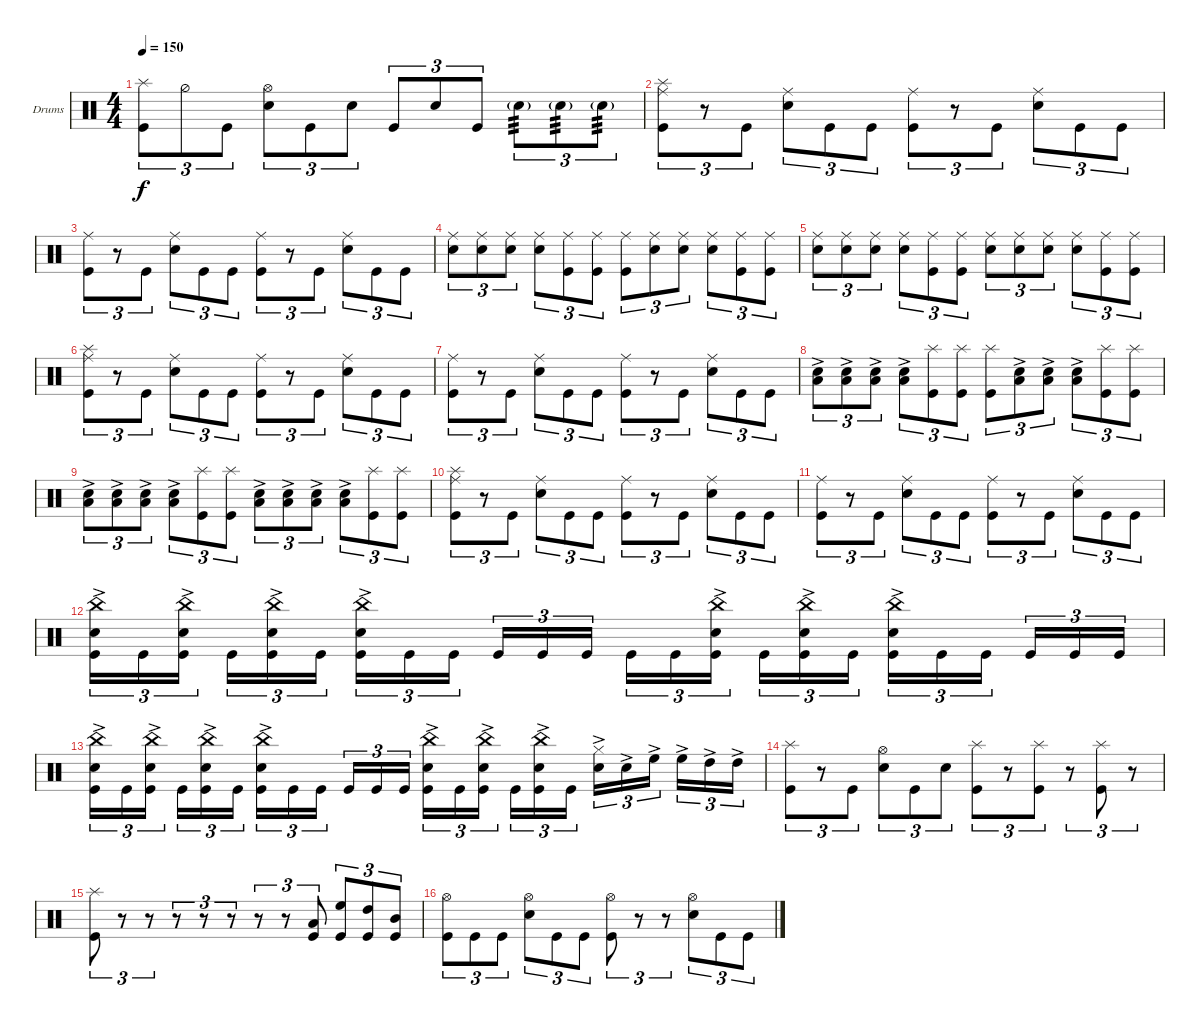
\bracketExtendMode groupsimilarinstruments
\firstSystemTrackNameOrientation horizontal
\otherSystemsTrackNameOrientation horizontal
\track ("Drumkit" "Drums") {instrument percussion}
\staff {score}
\articulation defaults
\ts (4 4)
\tempo 150
\clef neutral
\ks c
("Kick (hit)" "Splash (hit)").8{tu (3 2) dy f} "Hi-Hat (half)".8{tu (3 2)} "Kick (hit)".8{tu (3 2)} ("Hi-Hat (open)" "Snare (hit) 2").8{tu (3 2)} "Kick (hit)".8{tu (3 2)} "Snare (hit) 2".8{tu (3 2)} "Kick (hit)".8{tu (3 2)} "Snare (hit) 2".8{tu (3 2)} "Kick (hit)".8{tu (3 2)} "Snare (hit) 2"{g}.8{tu (3 2) tp 3} "Snare (hit) 2"{g}.8{tu (3 2) tp 3} "Snare (hit) 2"{g}.8{tu (3 2) tp 3} |
("Kick (hit)" "Ride (middle)" "Splash (hit)").8{tu (3 2)} r.8{tu (3 2)} "Kick (hit)".8{tu (3 2)} ("Snare (hit) 2" "Ride (middle)").8{tu (3 2)} "Kick (hit)".8{tu (3 2)} "Kick (hit)".8{tu (3 2)} ("Kick (hit)" "Ride (middle)").8{tu (3 2)} r.8{tu (3 2)} "Kick (hit)".8{tu (3 2)} ("Snare (hit) 2" "Ride (middle)").8{tu (3 2)} "Kick (hit)".8{tu (3 2)} "Kick (hit)".8{tu (3 2)} |
("Kick (hit)" "Ride (middle)").8{tu (3 2)} r.8{tu (3 2)} "Kick (hit)".8{tu (3 2)} ("Snare (hit) 2" "Ride (middle)").8{tu (3 2)} "Kick (hit)".8{tu (3 2)} "Kick (hit)".8{tu (3 2)} ("Kick (hit)" "Ride (middle)").8{tu (3 2)} r.8{tu (3 2)} "Kick (hit)".8{tu (3 2)} ("Snare (hit) 2" "Ride (middle)").8{tu (3 2)} "Kick (hit)".8{tu (3 2)} "Kick (hit)".8{tu (3 2)} |
("Snare (hit) 2" "Ride (middle)").8{tu (3 2)} ("Snare (hit) 2" "Ride (middle)").8{tu (3 2)} ("Snare (hit) 2" "Ride (middle)").8{tu (3 2)} ("Snare (hit) 2" "Ride (middle)").8{tu (3 2)} ("Kick (hit)" "Ride (middle)").8{tu (3 2)} ("Kick (hit)" "Ride (middle)").8{tu (3 2)} ("Kick (hit)" "Ride (middle)").8{tu (3 2)} ("Snare (hit) 2" "Ride (middle)").8{tu (3 2)} ("Snare (hit) 2" "Ride (middle)").8{tu (3 2)} ("Snare (hit) 2" "Ride (middle)").8{tu (3 2)} ("Kick (hit)" "Ride (middle)").8{tu (3 2)} ("Kick (hit)" "Ride (middle)").8{tu (3 2)} |
("Snare (hit) 2" "Ride (middle)").8{tu (3 2)} ("Snare (hit) 2" "Ride (middle)").8{tu (3 2)} ("Snare (hit) 2" "Ride (middle)").8{tu (3 2)} ("Snare (hit) 2" "Ride (middle)").8{tu (3 2)} ("Kick (hit)" "Ride (middle)").8{tu (3 2)} ("Kick (hit)" "Ride (middle)").8{tu (3 2)} ("Snare (hit) 2" "Ride (middle)").8{tu (3 2)} ("Snare (hit) 2" "Ride (middle)").8{tu (3 2)} ("Snare (hit) 2" "Ride (middle)").8{tu (3 2)} ("Snare (hit) 2" "Ride (middle)").8{tu (3 2)} ("Kick (hit)" "Ride (middle)").8{tu (3 2)} ("Kick (hit)" "Ride (middle)").8{tu (3 2)} |
("Kick (hit)" "Ride (middle)" "Splash (hit)").8{tu (3 2)} r.8{tu (3 2)} "Kick (hit)".8{tu (3 2)} ("Snare (hit) 2" "Ride (middle)").8{tu (3 2)} "Kick (hit)".8{tu (3 2)} "Kick (hit)".8{tu (3 2)} ("Kick (hit)" "Ride (middle)").8{tu (3 2)} r.8{tu (3 2)} "Kick (hit)".8{tu (3 2)} ("Snare (hit) 2" "Ride (middle)").8{tu (3 2)} "Kick (hit)".8{tu (3 2)} "Kick (hit)".8{tu (3 2)} |
("Kick (hit)" "Ride (middle)").8{tu (3 2)} r.8{tu (3 2)} "Kick (hit)".8{tu (3 2)} ("Snare (hit) 2" "Ride (middle)").8{tu (3 2)} "Kick (hit)".8{tu (3 2)} "Kick (hit)".8{tu (3 2)} ("Kick (hit)" "Ride (middle)").8{tu (3 2)} r.8{tu (3 2)} "Kick (hit)".8{tu (3 2)} ("Snare (hit) 2" "Ride (middle)").8{tu (3 2)} "Kick (hit)".8{tu (3 2)} "Kick (hit)".8{tu (3 2)} |
("Snare (hit) 2" "Low Tom (hit)"{ac}).8{tu (3 2)} ("Snare (hit) 2" "Low Tom (hit)"{ac}).8{tu (3 2)} ("Snare (hit) 2" "Low Tom (hit)"{ac}).8{tu (3 2)} ("Snare (hit) 2" "Low Tom (hit)"{ac}).8{tu (3 2)} ("Kick (hit)" "Splash (hit)").8{tu (3 2)} ("Kick (hit)" "Splash (hit)").8{tu (3 2)} ("Kick (hit)" "Splash (hit)").8{tu (3 2)} ("Snare (hit) 2" "Low Tom (hit)"{ac}).8{tu (3 2)} ("Snare (hit) 2" "Low Tom (hit)"{ac}).8{tu (3 2)} ("Snare (hit) 2" "Low Tom (hit)"{ac}).8{tu (3 2)} ("Kick (hit)" "Splash (hit)").8{tu (3 2)} ("Kick (hit)" "Splash (hit)").8{tu (3 2)} |
("Snare (hit) 2" "Low Tom (hit)"{ac}).8{tu (3 2)} ("Snare (hit) 2" "Low Tom (hit)"{ac}).8{tu (3 2)} ("Snare (hit) 2" "Low Tom (hit)"{ac}).8{tu (3 2)} ("Snare (hit) 2" "Low Tom (hit)"{ac}).8{tu (3 2)} ("Kick (hit)" "Splash (hit)").8{tu (3 2)} ("Kick (hit)" "Splash (hit)").8{tu (3 2)} ("Snare (hit) 2" "Low Tom (hit)"{ac}).8{tu (3 2)} ("Snare (hit) 2" "Low Tom (hit)"{ac}).8{tu (3 2)} ("Snare (hit) 2" "Low Tom (hit)"{ac}).8{tu (3 2)} ("Snare (hit) 2" "Low Tom (hit)"{ac}).8{tu (3 2)} ("Kick (hit)" "Splash (hit)").8{tu (3 2)} ("Kick (hit)" "Splash (hit)").8{tu (3 2)} |
("Kick (hit)" "Ride (middle)" "Splash (hit)").8{tu (3 2)} r.8{tu (3 2)} "Kick (hit)".8{tu (3 2)} ("Snare (hit) 2" "Ride (middle)").8{tu (3 2)} "Kick (hit)".8{tu (3 2)} "Kick (hit)".8{tu (3 2)} ("Kick (hit)" "Ride (middle)").8{tu (3 2)} r.8{tu (3 2)} "Kick (hit)".8{tu (3 2)} ("Snare (hit) 2" "Ride (middle)").8{tu (3 2)} "Kick (hit)".8{tu (3 2)} "Kick (hit)".8{tu (3 2)} |
("Kick (hit)" "Ride (middle)").8{tu (3 2)} r.8{tu (3 2)} "Kick (hit)".8{tu (3 2)} ("Snare (hit) 2" "Ride (middle)").8{tu (3 2)} "Kick (hit)".8{tu (3 2)} "Kick (hit)".8{tu (3 2)} ("Kick (hit)" "Ride (middle)").8{tu (3 2)} r.8{tu (3 2)} "Kick (hit)".8{tu (3 2)} ("Snare (hit) 2" "Ride (middle)").8{tu (3 2)} "Kick (hit)".8{tu (3 2)} "Kick (hit)".8{tu (3 2)} |
("Kick (hit)" "Snare (hit) 2"{ac} "China (hit)").16{tu (3 2)} "Kick (hit)".16{tu (3 2)} ("Kick (hit)" "Snare (hit) 2"{ac} "China (hit)").16{tu (3 2)} "Kick (hit)".16{tu (3 2)} ("Kick (hit)" "Snare (hit) 2"{ac} "China (hit)").16{tu (3 2)} "Kick (hit)".16{tu (3 2)} ("Kick (hit)" "Snare (hit) 2"{ac} "China (hit)").16{tu (3 2)} "Kick (hit)".16{tu (3 2)} "Kick (hit)".16{tu (3 2)} "Kick (hit)".16{tu (3 2)} "Kick (hit)".16{tu (3 2)} "Kick (hit)".16{tu (3 2)} "Kick (hit)".16{tu (3 2)} "Kick (hit)".16{tu (3 2)} ("Kick (hit)" "Snare (hit) 2"{ac} "China (hit)").16{tu (3 2)} "Kick (hit)".16{tu (3 2)} ("Kick (hit)" "Snare (hit) 2"{ac} "China (hit)").16{tu (3 2)} "Kick (hit)".16{tu (3 2)} ("Kick (hit)" "Snare (hit) 2"{ac} "China (hit)").16{tu (3 2)} "Kick (hit)".16{tu (3 2)} "Kick (hit)".16{tu (3 2)} "Kick (hit)".16{tu (3 2)} "Kick (hit)".16{tu (3 2)} "Kick (hit)".16{tu (3 2)} |
("Kick (hit)" "Snare (hit) 2"{ac} "China (hit)").16{tu (3 2)} "Kick (hit)".16{tu (3 2)} ("Kick (hit)" "Snare (hit) 2"{ac} "China (hit)").16{tu (3 2)} "Kick (hit)".16{tu (3 2)} ("Kick (hit)" "Snare (hit) 2"{ac} "China (hit)").16{tu (3 2)} "Kick (hit)".16{tu (3 2)} ("Kick (hit)" "Snare (hit) 2"{ac} "China (hit)").16{tu (3 2)} "Kick (hit)".16{tu (3 2)} "Kick (hit)".16{tu (3 2)} "Kick (hit)".16{tu (3 2)} "Kick (hit)".16{tu (3 2)} "Kick (hit)".16{tu (3 2)} ("Kick (hit)" "Snare (hit) 2"{ac} "China (hit)").16{tu (3 2)} "Kick (hit)".16{tu (3 2)} ("Kick (hit)" "Snare (hit) 2"{ac} "China (hit)").16{tu (3 2)} "Kick (hit)".16{tu (3 2)} ("Kick (hit)" "Snare (hit) 2"{ac} "China (hit)").16{tu (3 2)} "Kick (hit)".16{tu (3 2)} ("Snare (hit) 2"{ac} "Hi-Hat (closed)").16{tu (3 2)} "Snare (hit) 2"{ac}.16{tu (3 2)} "High Floor Tom (hit)"{ac}.16{tu (3 2)} "High Floor Tom (hit)"{ac}.16{tu (3 2)} "High Tom (hit)"{ac}.16{tu (3 2)} "High Tom (hit)"{ac}.16{tu (3 2)} |
("Kick (hit)" "Splash (hit)").8{tu (3 2)} r.8{tu (3 2)} "Kick (hit)".8{tu (3 2)} ("Snare (hit) 2" "Hi-Hat (open)").8{tu (3 2)} "Kick (hit)".8{tu (3 2)} "Snare (hit) 2".8{tu (3 2)} ("Kick (hit)" "Splash (hit)").8{tu (3 2)} r.8{tu (3 2)} ("Kick (hit)" "Splash (hit)").8{tu (3 2)} r.8{tu (3 2)} ("Kick (hit)" "Splash (hit)").8{tu (3 2)} r.8{tu (3 2)} |
("Kick (hit)" "Splash (hit)").8{tu (3 2)} r.8{tu (3 2)} r.8{tu (3 2)} r.8{tu (3 2)} r.8{tu (3 2)} r.8{tu (3 2)} r.8{tu (3 2)} r.8{tu (3 2)} ("Kick (hit)" "Low Tom (hit)").8{tu (3 2)} ("Kick (hit)" "High Floor Tom (hit)").8{tu (3 2)} ("Kick (hit)" "High Tom (hit)").8{tu (3 2)} ("Kick (hit)" "Mid Tom (hit)").8{tu (3 2)} |
("Kick (hit)" "Hi-Hat (open)").8{tu (3 2)} "Kick (hit)".8{tu (3 2)} "Kick (hit)".8{tu (3 2)} ("Snare (hit) 2" "Hi-Hat (open)").8{tu (3 2)} "Kick (hit)".8{tu (3 2)} "Kick (hit)".8{tu (3 2)} ("Kick (hit)" "Hi-Hat (open)").8{tu (3 2)} r.8{tu (3 2)} r.8{tu (3 2)} ("Snare (hit) 2" "Hi-Hat (open)").8{tu (3 2)} "Kick (hit)".8{tu (3 2)} "Kick (hit)".8{tu (3 2)}
